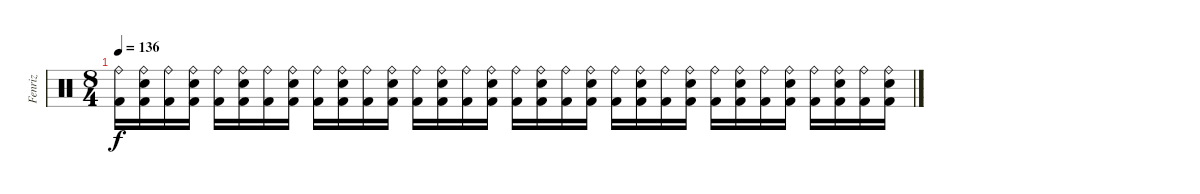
\track ("Fenriz" "Fenriz") {instrument percussion}
\staff {score}
\articulation defaults
\ts (8 4)
\tempo 136
\clef neutral
\ks c
("Ride (bell)" "Kick (hit) 2").16{dy f} ("Ride (bell)" "Snare (hit) 2" "Kick (hit) 2").16 ("Ride (bell)" "Kick (hit) 2").16 ("Ride (bell)" "Snare (hit) 2" "Kick (hit) 2").16 ("Ride (bell)" "Kick (hit) 2").16 ("Ride (bell)" "Snare (hit) 2" "Kick (hit) 2").16 ("Ride (bell)" "Kick (hit) 2").16 ("Ride (bell)" "Snare (hit) 2" "Kick (hit) 2").16 ("Ride (bell)" "Kick (hit) 2").16 ("Ride (bell)" "Snare (hit) 2" "Kick (hit) 2").16 ("Ride (bell)" "Kick (hit) 2").16 ("Ride (bell)" "Snare (hit) 2" "Kick (hit) 2").16 ("Ride (bell)" "Kick (hit) 2").16 ("Ride (bell)" "Snare (hit) 2" "Kick (hit) 2").16 ("Ride (bell)" "Kick (hit) 2").16 ("Ride (bell)" "Snare (hit) 2" "Kick (hit) 2").16 ("Ride (bell)" "Kick (hit) 2").16 ("Ride (bell)" "Snare (hit) 2" "Kick (hit) 2").16 ("Ride (bell)" "Kick (hit) 2").16 ("Ride (bell)" "Snare (hit) 2" "Kick (hit) 2").16 ("Ride (bell)" "Kick (hit) 2").16 ("Ride (bell)" "Snare (hit) 2" "Kick (hit) 2").16 ("Ride (bell)" "Kick (hit) 2").16 ("Ride (bell)" "Snare (hit) 2" "Kick (hit) 2").16 ("Ride (bell)" "Kick (hit) 2").16 ("Ride (bell)" "Snare (hit) 2" "Kick (hit) 2").16 ("Ride (bell)" "Kick (hit) 2").16 ("Ride (bell)" "Snare (hit) 2" "Kick (hit) 2").16 ("Ride (bell)" "Kick (hit) 2").16 ("Ride (bell)" "Snare (hit) 2" "Kick (hit) 2").16 ("Ride (bell)" "Kick (hit) 2").16 ("Ride (bell)" "Snare (hit) 2" "Kick (hit) 2").16
